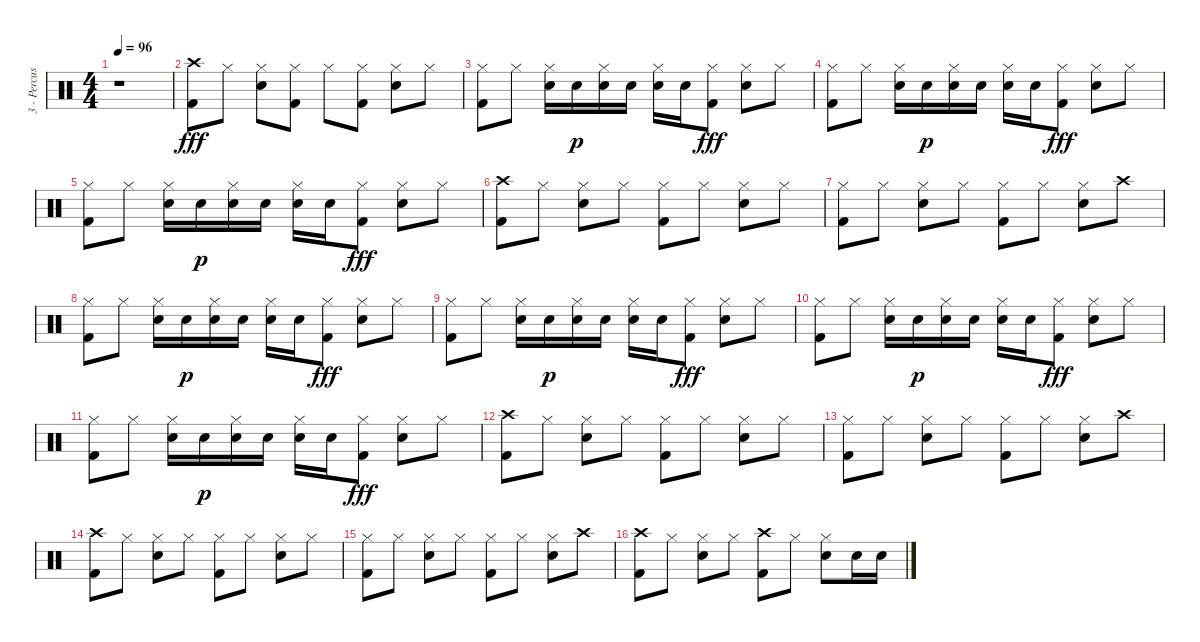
\track ("3 - Percussion" "3 - Percus") {instrument percussion}
\staff {score}
\articulation defaults
\ts (4 4)
\tempo 96
\clef neutral
\ks c
r.1{dy fff} |
("Crash high (hit)" "Kick (hit) 2").8 "Hi-Hat (closed)".8 ("Hi-Hat (closed)" "Snare (hit) 2").8 ("Hi-Hat (closed)" "Kick (hit) 2").8 "Hi-Hat (closed)".8 ("Hi-Hat (closed)" "Kick (hit) 2").8 ("Hi-Hat (closed)" "Snare (hit) 2").8 "Hi-Hat (closed)".8 |
("Hi-Hat (closed)" "Kick (hit) 2").8 "Hi-Hat (closed)".8 ("Hi-Hat (closed)" "Snare (hit) 2").16 "Snare (hit) 2".16{dy p} ("Hi-Hat (closed)" "Snare (hit) 2").16 "Snare (hit) 2".16 ("Hi-Hat (closed)" "Snare (hit) 2").16 "Snare (hit) 2".16 ("Hi-Hat (closed)" "Kick (hit) 2").8{dy fff} ("Hi-Hat (closed)" "Snare (hit) 2").8 "Hi-Hat (closed)".8 |
("Hi-Hat (closed)" "Kick (hit) 2").8 "Hi-Hat (closed)".8 ("Hi-Hat (closed)" "Snare (hit) 2").16 "Snare (hit) 2".16{dy p} ("Hi-Hat (closed)" "Snare (hit) 2").16 "Snare (hit) 2".16 ("Hi-Hat (closed)" "Snare (hit) 2").16 "Snare (hit) 2".16 ("Hi-Hat (closed)" "Kick (hit) 2").8{dy fff} ("Hi-Hat (closed)" "Snare (hit) 2").8 "Hi-Hat (closed)".8 |
("Hi-Hat (closed)" "Kick (hit) 2").8 "Hi-Hat (closed)".8 ("Hi-Hat (closed)" "Snare (hit) 2").16 "Snare (hit) 2".16{dy p} ("Hi-Hat (closed)" "Snare (hit) 2").16 "Snare (hit) 2".16 ("Hi-Hat (closed)" "Snare (hit) 2").16 "Snare (hit) 2".16 ("Hi-Hat (closed)" "Kick (hit) 2").8{dy fff} ("Hi-Hat (closed)" "Snare (hit) 2").8 "Hi-Hat (closed)".8 |
("Crash high (hit)" "Kick (hit) 2").8 "Hi-Hat (closed)".8 ("Hi-Hat (closed)" "Snare (hit) 2").8 "Hi-Hat (closed)".8 ("Hi-Hat (closed)" "Kick (hit) 2").8 "Hi-Hat (closed)".8 ("Hi-Hat (closed)" "Snare (hit) 2").8 "Hi-Hat (closed)".8 |
("Hi-Hat (closed)" "Kick (hit) 2").8 "Hi-Hat (closed)".8 ("Hi-Hat (closed)" "Snare (hit) 2").8 "Hi-Hat (closed)".8 ("Hi-Hat (closed)" "Kick (hit) 2").8 "Hi-Hat (closed)".8 ("Hi-Hat (closed)" "Snare (hit) 2").8 "Crash high (hit)".8 |
("Hi-Hat (closed)" "Kick (hit) 2").8 "Hi-Hat (closed)".8 ("Hi-Hat (closed)" "Snare (hit) 2").16 "Snare (hit) 2".16{dy p} ("Hi-Hat (closed)" "Snare (hit) 2").16 "Snare (hit) 2".16 ("Hi-Hat (closed)" "Snare (hit) 2").16 "Snare (hit) 2".16 ("Hi-Hat (closed)" "Kick (hit) 2").8{dy fff} ("Hi-Hat (closed)" "Snare (hit) 2").8 "Hi-Hat (closed)".8 |
("Hi-Hat (closed)" "Kick (hit) 2").8 "Hi-Hat (closed)".8 ("Hi-Hat (closed)" "Snare (hit) 2").16 "Snare (hit) 2".16{dy p} ("Hi-Hat (closed)" "Snare (hit) 2").16 "Snare (hit) 2".16 ("Hi-Hat (closed)" "Snare (hit) 2").16 "Snare (hit) 2".16 ("Hi-Hat (closed)" "Kick (hit) 2").8{dy fff} ("Hi-Hat (closed)" "Snare (hit) 2").8 "Hi-Hat (closed)".8 |
("Hi-Hat (closed)" "Kick (hit) 2").8 "Hi-Hat (closed)".8 ("Hi-Hat (closed)" "Snare (hit) 2").16 "Snare (hit) 2".16{dy p} ("Hi-Hat (closed)" "Snare (hit) 2").16 "Snare (hit) 2".16 ("Hi-Hat (closed)" "Snare (hit) 2").16 "Snare (hit) 2".16 ("Hi-Hat (closed)" "Kick (hit) 2").8{dy fff} ("Hi-Hat (closed)" "Snare (hit) 2").8 "Hi-Hat (closed)".8 |
("Hi-Hat (closed)" "Kick (hit) 2").8 "Hi-Hat (closed)".8 ("Hi-Hat (closed)" "Snare (hit) 2").16 "Snare (hit) 2".16{dy p} ("Hi-Hat (closed)" "Snare (hit) 2").16 "Snare (hit) 2".16 ("Hi-Hat (closed)" "Snare (hit) 2").16 "Snare (hit) 2".16 ("Hi-Hat (closed)" "Kick (hit) 2").8{dy fff} ("Hi-Hat (closed)" "Snare (hit) 2").8 "Hi-Hat (closed)".8 |
("Crash high (hit)" "Kick (hit) 2").8 "Hi-Hat (closed)".8 ("Hi-Hat (closed)" "Snare (hit) 2").8 "Hi-Hat (closed)".8 ("Hi-Hat (closed)" "Kick (hit) 2").8 "Hi-Hat (closed)".8 ("Hi-Hat (closed)" "Snare (hit) 2").8 "Hi-Hat (closed)".8 |
("Hi-Hat (closed)" "Kick (hit) 2").8 "Hi-Hat (closed)".8 ("Hi-Hat (closed)" "Snare (hit) 2").8 "Hi-Hat (closed)".8 ("Hi-Hat (closed)" "Kick (hit) 2").8 "Hi-Hat (closed)".8 ("Hi-Hat (closed)" "Snare (hit) 2").8 "Crash high (hit)".8 |
("Crash high (hit)" "Kick (hit) 2").8 "Hi-Hat (closed)".8 ("Hi-Hat (closed)" "Snare (hit) 2").8 "Hi-Hat (closed)".8 ("Hi-Hat (closed)" "Kick (hit) 2").8 "Hi-Hat (closed)".8 ("Hi-Hat (closed)" "Snare (hit) 2").8 "Hi-Hat (closed)".8 |
("Hi-Hat (closed)" "Kick (hit) 2").8 "Hi-Hat (closed)".8 ("Hi-Hat (closed)" "Snare (hit) 2").8 "Hi-Hat (closed)".8 ("Hi-Hat (closed)" "Kick (hit) 2").8 "Hi-Hat (closed)".8 ("Hi-Hat (closed)" "Snare (hit) 2").8 "Crash high (hit)".8 |
("Crash high (hit)" "Kick (hit) 2").8 "Hi-Hat (closed)".8 ("Hi-Hat (closed)" "Snare (hit) 2").8 "Hi-Hat (closed)".8 ("Crash high (hit)" "Kick (hit) 2").8 "Hi-Hat (closed)".8 ("Hi-Hat (closed)" "Snare (hit) 2").8 "Snare (hit) 2".16 "Snare (hit) 2".16
